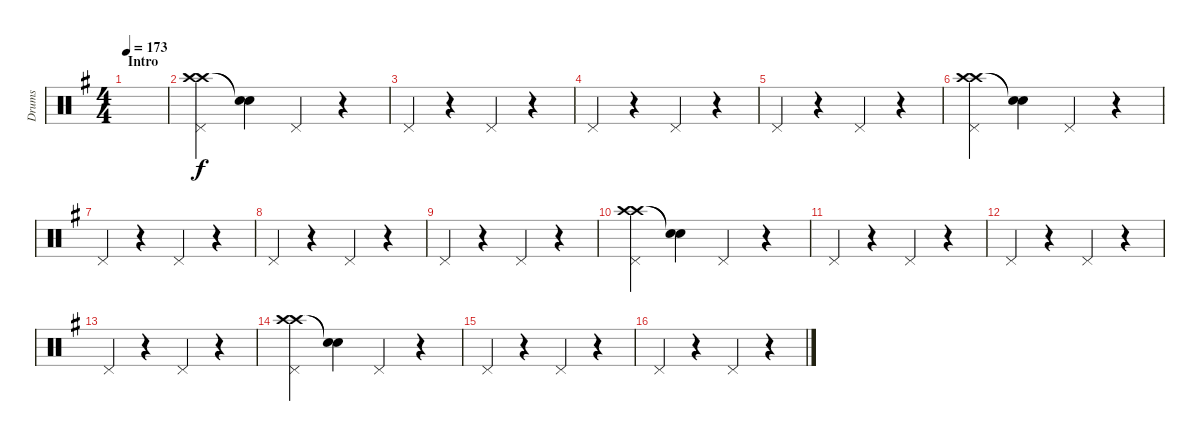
\track ("Drums" "Drums") {instrument percussion}
\staff {score}
\articulation defaults
\ts (4 4)
\section ("" "Intro")
\tempo 173
\clef neutral
\ks g
|
("Crash high (hit)" "Crash high (hit)" "Pedal Hi-Hat (hit)").4 ("Snare (hit)"{t} "Snare (hit)"{t}).4 "Pedal Hi-Hat (hit)".4 r.4 |
"Pedal Hi-Hat (hit)".4 r.4 "Pedal Hi-Hat (hit)".4 r.4 |
"Pedal Hi-Hat (hit)".4 r.4 "Pedal Hi-Hat (hit)".4 r.4 |
"Pedal Hi-Hat (hit)".4 r.4 "Pedal Hi-Hat (hit)".4 r.4 |
("Crash high (hit)" "Crash high (hit)" "Pedal Hi-Hat (hit)").4 ("Snare (hit)"{t} "Snare (hit)"{t}).4 "Pedal Hi-Hat (hit)".4 r.4 |
"Pedal Hi-Hat (hit)".4 r.4 "Pedal Hi-Hat (hit)".4 r.4 |
"Pedal Hi-Hat (hit)".4 r.4 "Pedal Hi-Hat (hit)".4 r.4 |
"Pedal Hi-Hat (hit)".4 r.4 "Pedal Hi-Hat (hit)".4 r.4 |
("Crash high (hit)" "Crash high (hit)" "Pedal Hi-Hat (hit)").4 ("Snare (hit)"{t} "Snare (hit)"{t}).4 "Pedal Hi-Hat (hit)".4 r.4 |
"Pedal Hi-Hat (hit)".4 r.4 "Pedal Hi-Hat (hit)".4 r.4 |
"Pedal Hi-Hat (hit)".4 r.4 "Pedal Hi-Hat (hit)".4 r.4 |
"Pedal Hi-Hat (hit)".4 r.4 "Pedal Hi-Hat (hit)".4 r.4 |
("Crash high (hit)" "Crash high (hit)" "Pedal Hi-Hat (hit)").4 ("Snare (hit)"{t} "Snare (hit)"{t}).4 "Pedal Hi-Hat (hit)".4 r.4 |
"Pedal Hi-Hat (hit)".4 r.4 "Pedal Hi-Hat (hit)".4 r.4 |
"Pedal Hi-Hat (hit)".4 r.4 "Pedal Hi-Hat (hit)".4 r.4
